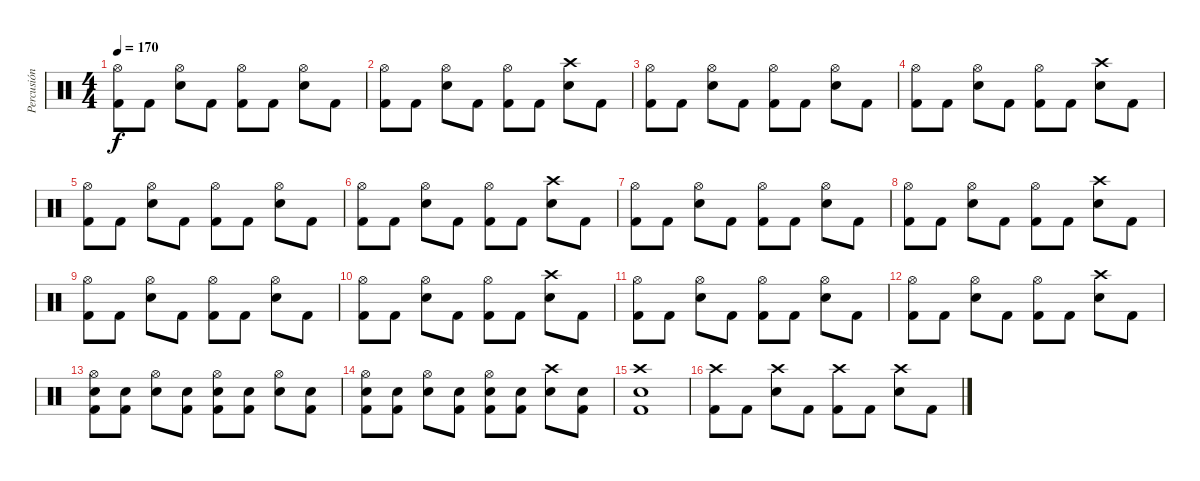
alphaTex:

\track ("Percusión" "Percusión") {instrument percussion}
\staff {score}
\articulation defaults
\ts (4 4)
\tempo 170
\clef neutral
\ks c
("Hi-Hat (open)" "Kick (hit) 2").8{dy f} "Kick (hit) 2".8 ("Hi-Hat (open)" "Snare (hit) 2").8 "Kick (hit) 2".8 ("Hi-Hat (open)" "Kick (hit) 2").8 "Kick (hit) 2".8 ("Hi-Hat (open)" "Snare (hit) 2").8 "Kick (hit) 2".8 |
("Hi-Hat (open)" "Kick (hit) 2").8 "Kick (hit) 2".8 ("Hi-Hat (open)" "Snare (hit) 2").8 "Kick (hit) 2".8 ("Hi-Hat (open)" "Kick (hit) 2").8 "Kick (hit) 2".8 ("Crash high (hit)" "Snare (hit) 2").8 "Kick (hit) 2".8 |
("Hi-Hat (open)" "Kick (hit) 2").8 "Kick (hit) 2".8 ("Hi-Hat (open)" "Snare (hit) 2").8 "Kick (hit) 2".8 ("Hi-Hat (open)" "Kick (hit) 2").8 "Kick (hit) 2".8 ("Hi-Hat (open)" "Snare (hit) 2").8 "Kick (hit) 2".8 |
("Hi-Hat (open)" "Kick (hit) 2").8 "Kick (hit) 2".8 ("Hi-Hat (open)" "Snare (hit) 2").8 "Kick (hit) 2".8 ("Hi-Hat (open)" "Kick (hit) 2").8 "Kick (hit) 2".8 ("Crash high (hit)" "Snare (hit) 2").8 "Kick (hit) 2".8 |
("Hi-Hat (open)" "Kick (hit) 2").8 "Kick (hit) 2".8 ("Hi-Hat (open)" "Snare (hit) 2").8 "Kick (hit) 2".8 ("Hi-Hat (open)" "Kick (hit) 2").8 "Kick (hit) 2".8 ("Hi-Hat (open)" "Snare (hit) 2").8 "Kick (hit) 2".8 |
("Hi-Hat (open)" "Kick (hit) 2").8 "Kick (hit) 2".8 ("Hi-Hat (open)" "Snare (hit) 2").8 "Kick (hit) 2".8 ("Hi-Hat (open)" "Kick (hit) 2").8 "Kick (hit) 2".8 ("Crash high (hit)" "Snare (hit) 2").8 "Kick (hit) 2".8 |
("Hi-Hat (open)" "Kick (hit) 2").8 "Kick (hit) 2".8 ("Hi-Hat (open)" "Snare (hit) 2").8 "Kick (hit) 2".8 ("Hi-Hat (open)" "Kick (hit) 2").8 "Kick (hit) 2".8 ("Hi-Hat (open)" "Snare (hit) 2").8 "Kick (hit) 2".8 |
("Hi-Hat (open)" "Kick (hit) 2").8 "Kick (hit) 2".8 ("Hi-Hat (open)" "Snare (hit) 2").8 "Kick (hit) 2".8 ("Hi-Hat (open)" "Kick (hit) 2").8 "Kick (hit) 2".8 ("Crash high (hit)" "Snare (hit) 2").8 "Kick (hit) 2".8 |
("Hi-Hat (open)" "Kick (hit) 2").8 "Kick (hit) 2".8 ("Hi-Hat (open)" "Snare (hit) 2").8 "Kick (hit) 2".8 ("Hi-Hat (open)" "Kick (hit) 2").8 "Kick (hit) 2".8 ("Hi-Hat (open)" "Snare (hit) 2").8 "Kick (hit) 2".8 |
("Hi-Hat (open)" "Kick (hit) 2").8 "Kick (hit) 2".8 ("Hi-Hat (open)" "Snare (hit) 2").8 "Kick (hit) 2".8 ("Hi-Hat (open)" "Kick (hit) 2").8 "Kick (hit) 2".8 ("Crash high (hit)" "Snare (hit) 2").8 "Kick (hit) 2".8 |
("Hi-Hat (open)" "Kick (hit) 2").8 "Kick (hit) 2".8 ("Hi-Hat (open)" "Snare (hit) 2").8 "Kick (hit) 2".8 ("Hi-Hat (open)" "Kick (hit) 2").8 "Kick (hit) 2".8 ("Hi-Hat (open)" "Snare (hit) 2").8 "Kick (hit) 2".8 |
("Hi-Hat (open)" "Kick (hit) 2").8 "Kick (hit) 2".8 ("Hi-Hat (open)" "Snare (hit) 2").8 "Kick (hit) 2".8 ("Hi-Hat (open)" "Kick (hit) 2").8 "Kick (hit) 2".8 ("Crash high (hit)" "Snare (hit) 2").8 "Kick (hit) 2".8 |
("Hi-Hat (open)" "Snare (hit) 2" "Kick (hit) 2").8 ("Snare (hit) 2" "Kick (hit) 2").8 ("Hi-Hat (open)" "Snare (hit) 2").8 ("Snare (hit) 2" "Kick (hit) 2").8 ("Hi-Hat (open)" "Snare (hit) 2" "Kick (hit) 2").8 ("Snare (hit) 2" "Kick (hit) 2").8 ("Hi-Hat (open)" "Snare (hit) 2").8 ("Snare (hit) 2" "Kick (hit) 2").8 |
("Hi-Hat (open)" "Snare (hit) 2" "Kick (hit) 2").8 ("Snare (hit) 2" "Kick (hit) 2").8 ("Hi-Hat (open)" "Snare (hit) 2").8 ("Snare (hit) 2" "Kick (hit) 2").8 ("Hi-Hat (open)" "Snare (hit) 2" "Kick (hit) 2").8 ("Snare (hit) 2" "Kick (hit) 2").8 ("Crash high (hit)" "Snare (hit) 2").8 ("Snare (hit) 2" "Kick (hit) 2").8 |
("Crash high (hit)" "Snare (hit) 2" "Kick (hit) 2").1 |
("Crash high (hit)" "Kick (hit) 2").8 "Kick (hit) 2".8 ("Crash high (hit)" "Snare (hit) 2").8 "Kick (hit) 2".8 ("Crash high (hit)" "Kick (hit) 2").8 "Kick (hit) 2".8 ("Crash high (hit)" "Snare (hit) 2").8 "Kick (hit) 2".8
